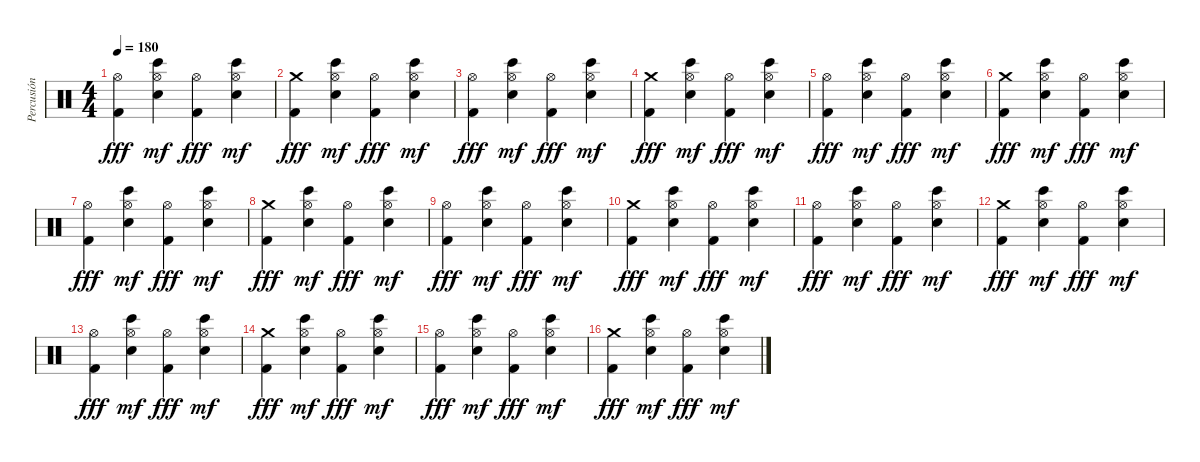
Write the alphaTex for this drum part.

\track ("Percusión" "Percusión") {instrument percussion}
\staff {score}
\articulation defaults
\ts (4 4)
\tempo 180
\clef neutral
\ks c
("Hi-Hat (open)" "Kick (hit) 2").4{dy fff} ("Hi-Hat (open)" "Bongo High (hit)" "Snare (hit) 2").4{dy mf} ("Hi-Hat (open)" "Kick (hit) 2").4{dy fff} ("Hi-Hat (open)" "Bongo High (hit)" "Snare (hit) 2").4{dy mf} |
("Crash medium (hit)" "Kick (hit) 2").4{dy fff} ("Hi-Hat (open)" "Bongo High (hit)" "Snare (hit) 2").4{dy mf} ("Hi-Hat (open)" "Kick (hit) 2").4{dy fff} ("Hi-Hat (open)" "Bongo High (hit)" "Snare (hit) 2").4{dy mf} |
("Hi-Hat (open)" "Kick (hit) 2").4{dy fff} ("Hi-Hat (open)" "Bongo High (hit)" "Snare (hit) 2").4{dy mf} ("Hi-Hat (open)" "Kick (hit) 2").4{dy fff} ("Hi-Hat (open)" "Bongo High (hit)" "Snare (hit) 2").4{dy mf} |
("Crash medium (hit)" "Kick (hit) 2").4{dy fff} ("Hi-Hat (open)" "Bongo High (hit)" "Snare (hit) 2").4{dy mf} ("Hi-Hat (open)" "Kick (hit) 2").4{dy fff} ("Hi-Hat (open)" "Bongo High (hit)" "Snare (hit) 2").4{dy mf} |
("Hi-Hat (open)" "Kick (hit) 2").4{dy fff} ("Hi-Hat (open)" "Bongo High (hit)" "Snare (hit) 2").4{dy mf} ("Hi-Hat (open)" "Kick (hit) 2").4{dy fff} ("Hi-Hat (open)" "Bongo High (hit)" "Snare (hit) 2").4{dy mf} |
("Crash medium (hit)" "Kick (hit) 2").4{dy fff} ("Hi-Hat (open)" "Bongo High (hit)" "Snare (hit) 2").4{dy mf} ("Hi-Hat (open)" "Kick (hit) 2").4{dy fff} ("Hi-Hat (open)" "Bongo High (hit)" "Snare (hit) 2").4{dy mf} |
("Hi-Hat (open)" "Kick (hit) 2").4{dy fff} ("Hi-Hat (open)" "Bongo High (hit)" "Snare (hit) 2").4{dy mf} ("Hi-Hat (open)" "Kick (hit) 2").4{dy fff} ("Hi-Hat (open)" "Bongo High (hit)" "Snare (hit) 2").4{dy mf} |
("Crash medium (hit)" "Kick (hit) 2").4{dy fff} ("Hi-Hat (open)" "Bongo High (hit)" "Snare (hit) 2").4{dy mf} ("Hi-Hat (open)" "Kick (hit) 2").4{dy fff} ("Hi-Hat (open)" "Bongo High (hit)" "Snare (hit) 2").4{dy mf} |
("Hi-Hat (open)" "Kick (hit) 2").4{dy fff} ("Hi-Hat (open)" "Bongo High (hit)" "Snare (hit) 2").4{dy mf} ("Hi-Hat (open)" "Kick (hit) 2").4{dy fff} ("Hi-Hat (open)" "Bongo High (hit)" "Snare (hit) 2").4{dy mf} |
("Crash medium (hit)" "Kick (hit) 2").4{dy fff} ("Hi-Hat (open)" "Bongo High (hit)" "Snare (hit) 2").4{dy mf} ("Hi-Hat (open)" "Kick (hit) 2").4{dy fff} ("Hi-Hat (open)" "Bongo High (hit)" "Snare (hit) 2").4{dy mf} |
("Hi-Hat (open)" "Kick (hit) 2").4{dy fff} ("Hi-Hat (open)" "Bongo High (hit)" "Snare (hit) 2").4{dy mf} ("Hi-Hat (open)" "Kick (hit) 2").4{dy fff} ("Hi-Hat (open)" "Bongo High (hit)" "Snare (hit) 2").4{dy mf} |
("Crash medium (hit)" "Kick (hit) 2").4{dy fff} ("Hi-Hat (open)" "Bongo High (hit)" "Snare (hit) 2").4{dy mf} ("Hi-Hat (open)" "Kick (hit) 2").4{dy fff} ("Hi-Hat (open)" "Bongo High (hit)" "Snare (hit) 2").4{dy mf} |
("Hi-Hat (open)" "Kick (hit) 2").4{dy fff} ("Hi-Hat (open)" "Bongo High (hit)" "Snare (hit) 2").4{dy mf} ("Hi-Hat (open)" "Kick (hit) 2").4{dy fff} ("Hi-Hat (open)" "Bongo High (hit)" "Snare (hit) 2").4{dy mf} |
("Crash medium (hit)" "Kick (hit) 2").4{dy fff} ("Hi-Hat (open)" "Bongo High (hit)" "Snare (hit) 2").4{dy mf} ("Hi-Hat (open)" "Kick (hit) 2").4{dy fff} ("Hi-Hat (open)" "Bongo High (hit)" "Snare (hit) 2").4{dy mf} |
("Hi-Hat (open)" "Kick (hit) 2").4{dy fff} ("Hi-Hat (open)" "Bongo High (hit)" "Snare (hit) 2").4{dy mf} ("Hi-Hat (open)" "Kick (hit) 2").4{dy fff} ("Hi-Hat (open)" "Bongo High (hit)" "Snare (hit) 2").4{dy mf} |
("Crash medium (hit)" "Kick (hit) 2").4{dy fff} ("Hi-Hat (open)" "Bongo High (hit)" "Snare (hit) 2").4{dy mf} ("Hi-Hat (open)" "Kick (hit) 2").4{dy fff} ("Hi-Hat (open)" "Bongo High (hit)" "Snare (hit) 2").4{dy mf}
